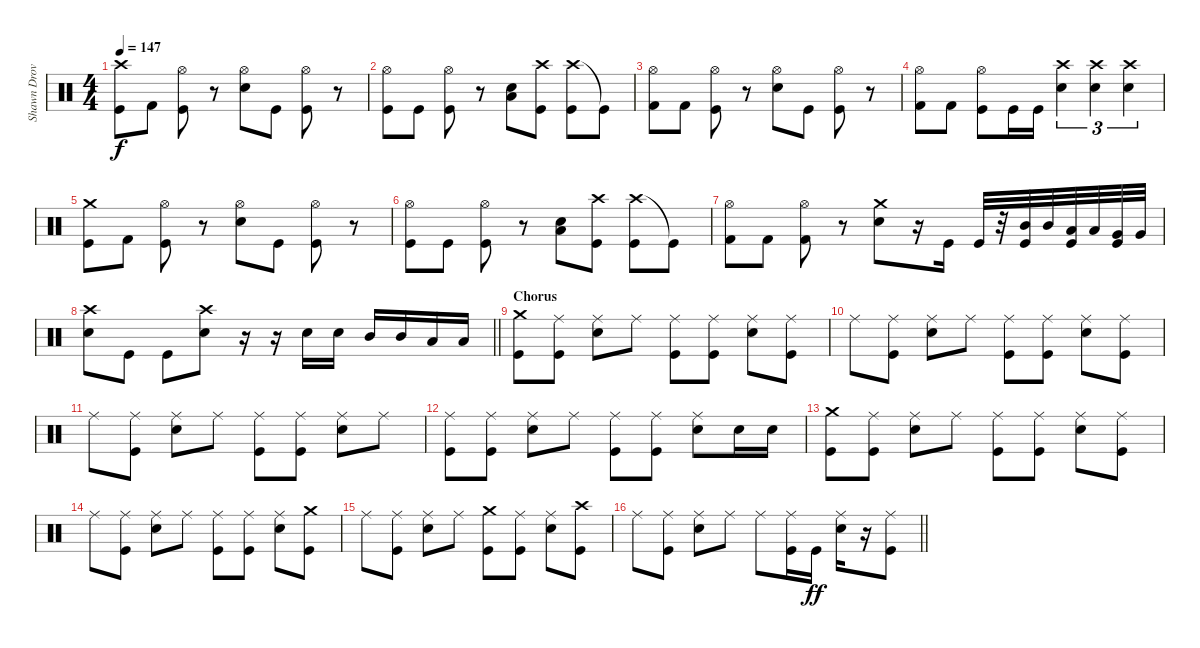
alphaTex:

\track ("Shawn Drover" "Shawn Drov") {instrument percussion}
\staff {score}
\articulation defaults
\ts (4 4)
\tempo 147
\clef neutral
\ks c
("Crash high (hit)" "Kick (hit)").8{dy f} "Kick (hit) 2".8 ("Hi-Hat (open)" "Kick (hit)").8 r.8 ("Hi-Hat (open)" "Snare (hit) 2").8 "Kick (hit)".8 ("Hi-Hat (open)" "Kick (hit)").8 r.8 |
("Hi-Hat (open)" "Kick (hit)").8 "Kick (hit)".8 ("Hi-Hat (open)" "Kick (hit)").8 r.8 ("Snare (hit) 2" "Low Floor Tom (hit)").8 ("Crash high (hit)" "Kick (hit)").8 ("Crash high (hit)" "Kick (hit)").8 "Kick (hit)"{t}.8 |
("Hi-Hat (open)" "Kick (hit) 2").8 "Kick (hit) 2".8 ("Hi-Hat (open)" "Kick (hit)").8 r.8 ("Hi-Hat (open)" "Snare (hit) 2").8 "Kick (hit)".8 ("Hi-Hat (open)" "Kick (hit)").8 r.8 |
("Hi-Hat (open)" "Kick (hit) 2").8 "Kick (hit) 2".8 ("Hi-Hat (open)" "Kick (hit)").8 "Kick (hit)".16 "Kick (hit)".16 ("Crash high (hit)" "Snare (hit) 2").4{tu (3 2)} ("Crash high (hit)" "Snare (hit) 2").4{tu (3 2)} ("Crash high (hit)" "Snare (hit) 2").4{tu (3 2)} |
("Crash medium (hit)" "Kick (hit)").8 "Kick (hit) 2".8 ("Hi-Hat (open)" "Kick (hit)").8 r.8 ("Hi-Hat (open)" "Snare (hit) 2").8 "Kick (hit)".8 ("Hi-Hat (open)" "Kick (hit)").8 r.8 |
("Hi-Hat (open)" "Kick (hit)").8 "Kick (hit)".8 ("Hi-Hat (open)" "Kick (hit)").8 r.8 ("Snare (hit) 2" "Low Floor Tom (hit)").8 ("Crash high (hit)" "Kick (hit)").8 ("Crash high (hit)" "Kick (hit)").8 "Kick (hit)"{t}.8 |
("Hi-Hat (open)" "Kick (hit) 2").8 "Kick (hit) 2".8 ("Hi-Hat (open)" "Kick (hit) 2").8 r.8 ("Crash medium (hit)" "Snare (hit) 2").8 r.16 "Kick (hit)".16 "Kick (hit)".32 r.32 ("Mid Tom (hit)" "Kick (hit)").32 "Mid Tom (hit)".32 ("Low Tom (hit)" "Kick (hit)").32 "Low Tom (hit)".32 ("Very Low Tom (hit)" "Kick (hit)").32 "Very Low Tom (hit)".32 |
\barLineRight lightlight
("Crash high (hit)" "Snare (hit) 2").8 "Kick (hit)".8 "Kick (hit)".8 ("Crash high (hit)" "Snare (hit) 2").8 r.16 r.16 "Snare (hit) 2".16 "Snare (hit) 2".16 "Mid Tom (hit)".16 "Mid Tom (hit)".16 "Low Tom (hit)".16 "Low Tom (hit)".16 |
\section ("" "Chorus")
("Crash medium (hit)" "Kick (hit)").8 ("Ride (middle)" "Kick (hit)").8 ("Ride (middle)" "Snare (hit) 2").8 "Ride (middle)".8 ("Ride (middle)" "Kick (hit)").8 ("Ride (middle)" "Kick (hit)").8 ("Ride (middle)" "Snare (hit) 2").8 ("Ride (middle)" "Kick (hit)").8 |
"Ride (middle)".8 ("Ride (middle)" "Kick (hit)").8 ("Ride (middle)" "Snare (hit) 2").8 "Ride (middle)".8 ("Ride (middle)" "Kick (hit)").8 ("Ride (middle)" "Kick (hit)").8 ("Ride (middle)" "Snare (hit) 2").8 ("Ride (middle)" "Kick (hit)").8 |
"Ride (middle)".8 ("Ride (middle)" "Kick (hit)").8 ("Ride (middle)" "Snare (hit) 2").8 "Ride (middle)".8 ("Ride (middle)" "Kick (hit)").8 ("Ride (middle)" "Kick (hit)").8 ("Ride (middle)" "Snare (hit) 2").8 "Ride (middle)".8 |
("Ride (middle)" "Kick (hit)").8 ("Ride (middle)" "Kick (hit)").8 ("Ride (middle)" "Snare (hit) 2").8 "Ride (middle)".8 ("Ride (middle)" "Kick (hit)").8 ("Ride (middle)" "Kick (hit)").8 ("Ride (middle)" "Snare (hit) 2").8 "Snare (hit) 2".16 "Snare (hit) 2".16 |
("Crash medium (hit)" "Kick (hit)").8 ("Ride (middle)" "Kick (hit)").8 ("Ride (middle)" "Snare (hit) 2").8 "Ride (middle)".8 ("Ride (middle)" "Kick (hit)").8 ("Ride (middle)" "Kick (hit)").8 ("Ride (middle)" "Snare (hit) 2").8 ("Ride (middle)" "Kick (hit)").8 |
"Ride (middle)".8 ("Ride (middle)" "Kick (hit)").8 ("Ride (middle)" "Snare (hit) 2").8 "Ride (middle)".8 ("Ride (middle)" "Kick (hit)").8 ("Ride (middle)" "Kick (hit)").8 ("Ride (middle)" "Snare (hit) 2").8 ("Crash medium (hit)" "Kick (hit)").8 |
"Ride (middle)".8 ("Ride (middle)" "Kick (hit)").8 ("Ride (middle)" "Snare (hit) 2").8 "Ride (middle)".8 ("Crash medium (hit)" "Kick (hit)").8 ("Ride (middle)" "Kick (hit)").8 ("Ride (middle)" "Snare (hit) 2").8 ("Crash high (hit)" "Kick (hit)").8 |
\barLineRight lightlight "Ride (middle)".8
("Ride (middle)" "Kick (hit)").8 ("Ride (middle)" "Snare (hit) 2").8 "Ride (middle)".8 "Ride (middle)".8 ("Ride (middle)" "Kick (hit)").16 "Kick (hit)".16{dy ff} ("Ride (middle)" "Snare (hit) 2").16 r.16 ("Ride (middle)" "Kick (hit)").8
